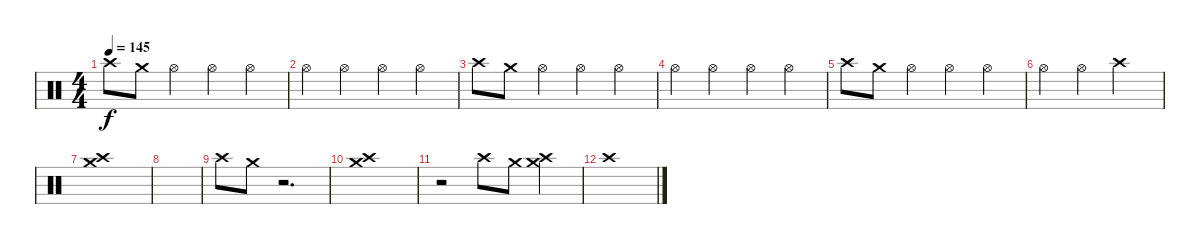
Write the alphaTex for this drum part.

\track "" {instrument percussion}
\staff {score}
\articulation defaults
\ts (4 4)
\tempo 145
\clef neutral
\ks c "Crash high (hit)".8{dy f} "Crash medium (hit)".8 "Hi-Hat (open)".4 "Hi-Hat (open)".4 "Hi-Hat (open)".4
|
"Hi-Hat (open)".4 "Hi-Hat (open)".4 "Hi-Hat (open)".4 "Hi-Hat (open)".4 |
"Crash high (hit)".8 "Crash medium (hit)".8 "Hi-Hat (open)".4 "Hi-Hat (open)".4 "Hi-Hat (open)".4 |
"Hi-Hat (open)".4 "Hi-Hat (open)".4 "Hi-Hat (open)".4 "Hi-Hat (open)".4 |
"Crash high (hit)".8 "Crash medium (hit)".8 "Hi-Hat (open)".4 "Hi-Hat (open)".4 "Hi-Hat (open)".4 |
"Hi-Hat (open)".4 "Hi-Hat (open)".4 "Crash high (hit)".2 |
("Crash medium (hit)" "Crash high (hit)").1 |
|
"Crash high (hit)".8 "Crash medium (hit)".8 r.2{d} |
("Crash medium (hit)" "Crash high (hit)").1 |
r.2 "Crash high (hit)".8 "Crash medium (hit)".8 ("Crash medium (hit)" "Crash high (hit)").4 |
"Crash high (hit)".1
